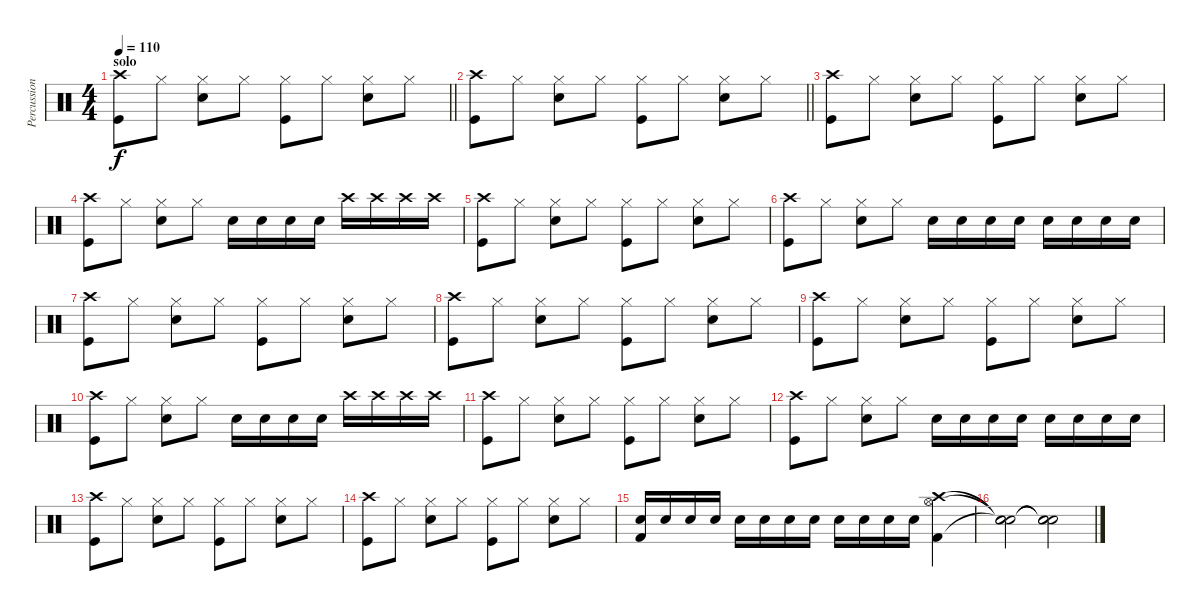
\track ("Percussion" "Percussion") {instrument percussion}
\staff {score}
\articulation defaults
\ts (4 4)
\section ("" "solo")
\tempo 110
\clef neutral
\barLineRight lightlight
\ks c
("Crash high (hit)" "Kick (hit)").8{dy f} "Hi-Hat (closed)".8 ("Hi-Hat (closed)" "Electric Snare (hit)").8 "Hi-Hat (closed)".8 ("Hi-Hat (closed)" "Kick (hit)").8 "Hi-Hat (closed)".8 ("Hi-Hat (closed)" "Electric Snare (hit)").8 "Hi-Hat (closed)".8 |
\section ("" "")
\barLineRight lightlight
("Crash high (hit)" "Kick (hit)").8 "Hi-Hat (closed)".8 ("Hi-Hat (closed)" "Electric Snare (hit)").8 "Hi-Hat (closed)".8 ("Hi-Hat (closed)" "Kick (hit)").8 "Hi-Hat (closed)".8 ("Hi-Hat (closed)" "Electric Snare (hit)").8 "Hi-Hat (closed)".8 |
("Crash high (hit)" "Kick (hit)").8 "Hi-Hat (closed)".8 ("Hi-Hat (closed)" "Electric Snare (hit)").8 "Hi-Hat (closed)".8 ("Hi-Hat (closed)" "Kick (hit)").8 "Hi-Hat (closed)".8 ("Hi-Hat (closed)" "Electric Snare (hit)").8 "Hi-Hat (closed)".8 |
("Crash high (hit)" "Kick (hit)").8 "Hi-Hat (closed)".8 ("Hi-Hat (closed)" "Electric Snare (hit)").8 "Hi-Hat (closed)".8 "Electric Snare (hit)".16 "Electric Snare (hit)".16 "Electric Snare (hit)".16 "Electric Snare (hit)".16 "Crash high (hit)".16 "Crash high (hit)".16 "Crash high (hit)".16 "Crash high (hit)".16 |
("Crash high (hit)" "Kick (hit)").8 "Hi-Hat (closed)".8 ("Hi-Hat (closed)" "Electric Snare (hit)").8 "Hi-Hat (closed)".8 ("Hi-Hat (closed)" "Kick (hit)").8 "Hi-Hat (closed)".8 ("Hi-Hat (closed)" "Electric Snare (hit)").8 "Hi-Hat (closed)".8 |
("Crash high (hit)" "Kick (hit)").8 "Hi-Hat (closed)".8 ("Hi-Hat (closed)" "Electric Snare (hit)").8 "Hi-Hat (closed)".8 "Electric Snare (hit)".16 "Electric Snare (hit)".16 "Electric Snare (hit)".16 "Electric Snare (hit)".16 "Electric Snare (hit)".16 "Electric Snare (hit)".16 "Electric Snare (hit)".16 "Electric Snare (hit)".16 |
("Crash high (hit)" "Kick (hit)").8 "Hi-Hat (closed)".8 ("Hi-Hat (closed)" "Electric Snare (hit)").8 "Hi-Hat (closed)".8 ("Hi-Hat (closed)" "Kick (hit)").8 "Hi-Hat (closed)".8 ("Hi-Hat (closed)" "Electric Snare (hit)").8 "Hi-Hat (closed)".8 |
("Crash high (hit)" "Kick (hit)").8 "Hi-Hat (closed)".8 ("Hi-Hat (closed)" "Electric Snare (hit)").8 "Hi-Hat (closed)".8 ("Hi-Hat (closed)" "Kick (hit)").8 "Hi-Hat (closed)".8 ("Hi-Hat (closed)" "Electric Snare (hit)").8 "Hi-Hat (closed)".8 |
("Crash high (hit)" "Kick (hit)").8 "Hi-Hat (closed)".8 ("Hi-Hat (closed)" "Electric Snare (hit)").8 "Hi-Hat (closed)".8 ("Hi-Hat (closed)" "Kick (hit)").8 "Hi-Hat (closed)".8 ("Hi-Hat (closed)" "Electric Snare (hit)").8 "Hi-Hat (closed)".8 |
("Crash high (hit)" "Kick (hit)").8 "Hi-Hat (closed)".8 ("Hi-Hat (closed)" "Electric Snare (hit)").8 "Hi-Hat (closed)".8 "Electric Snare (hit)".16 "Electric Snare (hit)".16 "Electric Snare (hit)".16 "Electric Snare (hit)".16 "Crash high (hit)".16 "Crash high (hit)".16 "Crash high (hit)".16 "Crash high (hit)".16 |
("Crash high (hit)" "Kick (hit)").8 "Hi-Hat (closed)".8 ("Hi-Hat (closed)" "Electric Snare (hit)").8 "Hi-Hat (closed)".8 ("Hi-Hat (closed)" "Kick (hit)").8 "Hi-Hat (closed)".8 ("Hi-Hat (closed)" "Electric Snare (hit)").8 "Hi-Hat (closed)".8 |
("Crash high (hit)" "Kick (hit)").8 "Hi-Hat (closed)".8 ("Hi-Hat (closed)" "Electric Snare (hit)").8 "Hi-Hat (closed)".8 "Electric Snare (hit)".16 "Electric Snare (hit)".16 "Electric Snare (hit)".16 "Electric Snare (hit)".16 "Electric Snare (hit)".16 "Electric Snare (hit)".16 "Electric Snare (hit)".16 "Electric Snare (hit)".16 |
("Crash high (hit)" "Kick (hit)").8 "Hi-Hat (closed)".8 ("Hi-Hat (closed)" "Electric Snare (hit)").8 "Hi-Hat (closed)".8 ("Hi-Hat (closed)" "Kick (hit)").8 "Hi-Hat (closed)".8 ("Hi-Hat (closed)" "Electric Snare (hit)").8 "Hi-Hat (closed)".8 |
("Crash high (hit)" "Kick (hit)").8 "Hi-Hat (closed)".8 ("Hi-Hat (closed)" "Electric Snare (hit)").8 "Hi-Hat (closed)".8 ("Hi-Hat (closed)" "Kick (hit)").8 "Hi-Hat (closed)".8 ("Hi-Hat (closed)" "Electric Snare (hit)").8 "Hi-Hat (closed)".8 |
("Electric Snare (hit)" "Kick (hit) 2").16 "Electric Snare (hit)".16 "Electric Snare (hit)".16 "Electric Snare (hit)".16 "Electric Snare (hit)".16 "Electric Snare (hit)".16 "Electric Snare (hit)".16 "Electric Snare (hit)".16 "Electric Snare (hit)".16 "Electric Snare (hit)".16 "Electric Snare (hit)".16 "Electric Snare (hit)".16 ("Hi-Hat (open)" "Crash high (hit)" "Kick (hit) 2").4 |
("Snare (hit)"{t} "Snare (hit)"{t} "Snare (hit)"{t}).2 ("Snare (hit)"{t} "Snare (hit)"{t} "Snare (hit)"{t}).2
